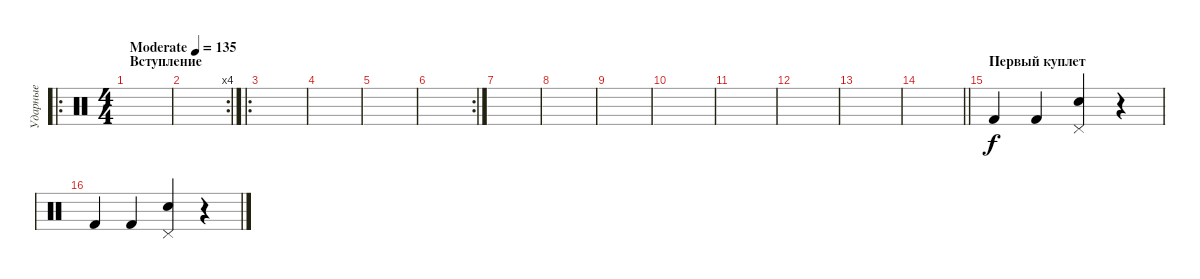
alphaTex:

\track ("Ударные" "Ударные") {instrument percussion}
\staff {score}
\articulation defaults
\ro
\ts (4 4)
\section ("" "Вступление")
\tempo (135 "Moderate")
\clef neutral
\ks c
|
\rc 4
|
\ro
|
|
|
\rc 2
|
|
|
|
|
|
|
|
\barLineRight lightlight
|
\section ("" "Первый куплет")
"Kick (hit) 2".4{volume 4} "Kick (hit) 2".4 ("Pedal Hi-Hat (hit)" "Snare (hit) 2").4 r.4 |
"Kick (hit) 2".4 "Kick (hit) 2".4 ("Pedal Hi-Hat (hit)" "Snare (hit) 2").4 r.4
